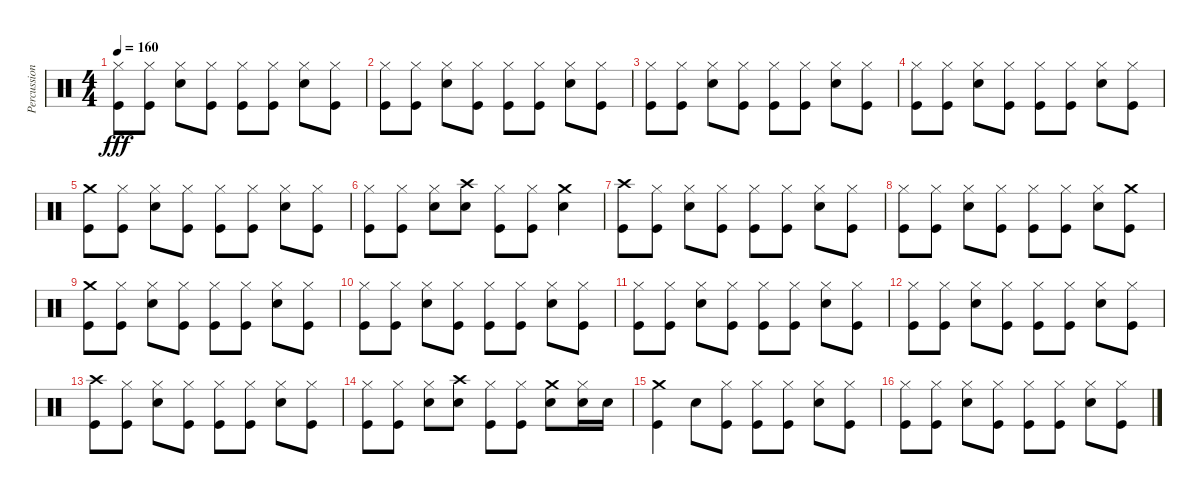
\track ("Percussions" "Percussion") {instrument percussion}
\staff {score}
\articulation defaults
\ts (4 4)
\tempo 160
\clef neutral
\ks c
("Hi-Hat (closed)" "Kick (hit)").8{dy fff} ("Hi-Hat (closed)" "Kick (hit)").8 ("Hi-Hat (closed)" "Electric Snare (hit)").8 ("Hi-Hat (closed)" "Kick (hit)").8 ("Hi-Hat (closed)" "Kick (hit)").8 ("Hi-Hat (closed)" "Kick (hit)").8 ("Hi-Hat (closed)" "Electric Snare (hit)").8 ("Hi-Hat (closed)" "Kick (hit)").8 |
("Hi-Hat (closed)" "Kick (hit)").8 ("Hi-Hat (closed)" "Kick (hit)").8 ("Hi-Hat (closed)" "Electric Snare (hit)").8 ("Hi-Hat (closed)" "Kick (hit)").8 ("Hi-Hat (closed)" "Kick (hit)").8 ("Hi-Hat (closed)" "Kick (hit)").8 ("Hi-Hat (closed)" "Electric Snare (hit)").8 ("Hi-Hat (closed)" "Kick (hit)").8 |
("Hi-Hat (closed)" "Kick (hit)").8 ("Hi-Hat (closed)" "Kick (hit)").8 ("Hi-Hat (closed)" "Electric Snare (hit)").8 ("Hi-Hat (closed)" "Kick (hit)").8 ("Hi-Hat (closed)" "Kick (hit)").8 ("Hi-Hat (closed)" "Kick (hit)").8 ("Hi-Hat (closed)" "Electric Snare (hit)").8 ("Hi-Hat (closed)" "Kick (hit)").8 |
("Hi-Hat (closed)" "Kick (hit)").8 ("Hi-Hat (closed)" "Kick (hit)").8 ("Hi-Hat (closed)" "Electric Snare (hit)").8 ("Hi-Hat (closed)" "Kick (hit)").8 ("Hi-Hat (closed)" "Kick (hit)").8 ("Hi-Hat (closed)" "Kick (hit)").8 ("Hi-Hat (closed)" "Electric Snare (hit)").8 ("Hi-Hat (closed)" "Kick (hit)").8 |
("Crash medium (hit)" "Kick (hit)").8 ("Hi-Hat (closed)" "Kick (hit)").8 ("Hi-Hat (closed)" "Electric Snare (hit)").8 ("Hi-Hat (closed)" "Kick (hit)").8 ("Hi-Hat (closed)" "Kick (hit)").8 ("Hi-Hat (closed)" "Kick (hit)").8 ("Hi-Hat (closed)" "Electric Snare (hit)").8 ("Hi-Hat (closed)" "Kick (hit)").8 |
("Hi-Hat (closed)" "Kick (hit)").8 ("Hi-Hat (closed)" "Kick (hit)").8 ("Hi-Hat (closed)" "Electric Snare (hit)").8 ("Crash high (hit)" "Electric Snare (hit)").8 ("Hi-Hat (closed)" "Kick (hit)").8 ("Hi-Hat (closed)" "Kick (hit)").8 ("Crash medium (hit)" "Electric Snare (hit)").4 |
("Crash high (hit)" "Kick (hit)").8 ("Hi-Hat (closed)" "Kick (hit)").8 ("Hi-Hat (closed)" "Electric Snare (hit)").8 ("Hi-Hat (closed)" "Kick (hit)").8 ("Hi-Hat (closed)" "Kick (hit)").8 ("Hi-Hat (closed)" "Kick (hit)").8 ("Hi-Hat (closed)" "Electric Snare (hit)").8 ("Hi-Hat (closed)" "Kick (hit)").8 |
("Hi-Hat (closed)" "Kick (hit)").8 ("Hi-Hat (closed)" "Kick (hit)").8 ("Hi-Hat (closed)" "Electric Snare (hit)").8 ("Hi-Hat (closed)" "Kick (hit)").8 ("Hi-Hat (closed)" "Kick (hit)").8 ("Hi-Hat (closed)" "Kick (hit)").8 ("Hi-Hat (closed)" "Electric Snare (hit)").8 ("Crash medium (hit)" "Kick (hit)").8 |
("Crash medium (hit)" "Kick (hit)").8 ("Hi-Hat (closed)" "Kick (hit)").8 ("Hi-Hat (closed)" "Electric Snare (hit)").8 ("Hi-Hat (closed)" "Kick (hit)").8 ("Hi-Hat (closed)" "Kick (hit)").8 ("Hi-Hat (closed)" "Kick (hit)").8 ("Hi-Hat (closed)" "Electric Snare (hit)").8 ("Hi-Hat (closed)" "Kick (hit)").8 |
("Hi-Hat (closed)" "Kick (hit)").8 ("Hi-Hat (closed)" "Kick (hit)").8 ("Hi-Hat (closed)" "Electric Snare (hit)").8 ("Hi-Hat (closed)" "Kick (hit)").8 ("Hi-Hat (closed)" "Kick (hit)").8 ("Hi-Hat (closed)" "Kick (hit)").8 ("Hi-Hat (closed)" "Electric Snare (hit)").8 ("Hi-Hat (closed)" "Kick (hit)").8 |
("Hi-Hat (closed)" "Kick (hit)").8 ("Hi-Hat (closed)" "Kick (hit)").8 ("Hi-Hat (closed)" "Electric Snare (hit)").8 ("Hi-Hat (closed)" "Kick (hit)").8 ("Hi-Hat (closed)" "Kick (hit)").8 ("Hi-Hat (closed)" "Kick (hit)").8 ("Hi-Hat (closed)" "Electric Snare (hit)").8 ("Hi-Hat (closed)" "Kick (hit)").8 |
("Hi-Hat (closed)" "Kick (hit)").8 ("Hi-Hat (closed)" "Kick (hit)").8 ("Hi-Hat (closed)" "Electric Snare (hit)").8 ("Hi-Hat (closed)" "Kick (hit)").8 ("Hi-Hat (closed)" "Kick (hit)").8 ("Hi-Hat (closed)" "Kick (hit)").8 ("Hi-Hat (closed)" "Electric Snare (hit)").8 ("Hi-Hat (closed)" "Kick (hit)").8 |
("Crash high (hit)" "Kick (hit)").8 ("Hi-Hat (closed)" "Kick (hit)").8 ("Hi-Hat (closed)" "Electric Snare (hit)").8 ("Hi-Hat (closed)" "Kick (hit)").8 ("Hi-Hat (closed)" "Kick (hit)").8 ("Hi-Hat (closed)" "Kick (hit)").8 ("Hi-Hat (closed)" "Electric Snare (hit)").8 ("Hi-Hat (closed)" "Kick (hit)").8 |
("Hi-Hat (closed)" "Kick (hit)").8 ("Hi-Hat (closed)" "Kick (hit)").8 ("Hi-Hat (closed)" "Electric Snare (hit)").8 ("Crash high (hit)" "Electric Snare (hit)").8 ("Hi-Hat (closed)" "Kick (hit)").8 ("Hi-Hat (closed)" "Kick (hit)").8 ("Crash medium (hit)" "Electric Snare (hit)").8 ("Hi-Hat (closed)" "Electric Snare (hit)").16 "Electric Snare (hit)".16 |
("Crash medium (hit)" "Kick (hit)").4 "Electric Snare (hit)".8 ("Hi-Hat (closed)" "Kick (hit)").8 ("Hi-Hat (closed)" "Kick (hit)").8 ("Hi-Hat (closed)" "Kick (hit)").8 ("Hi-Hat (closed)" "Electric Snare (hit)").8 ("Hi-Hat (closed)" "Kick (hit)").8 |
("Hi-Hat (closed)" "Kick (hit)").8 ("Hi-Hat (closed)" "Kick (hit)").8 ("Hi-Hat (closed)" "Electric Snare (hit)").8 ("Hi-Hat (closed)" "Kick (hit)").8 ("Hi-Hat (closed)" "Kick (hit)").8 ("Hi-Hat (closed)" "Kick (hit)").8 ("Hi-Hat (closed)" "Electric Snare (hit)").8 ("Hi-Hat (closed)" "Kick (hit)").8
